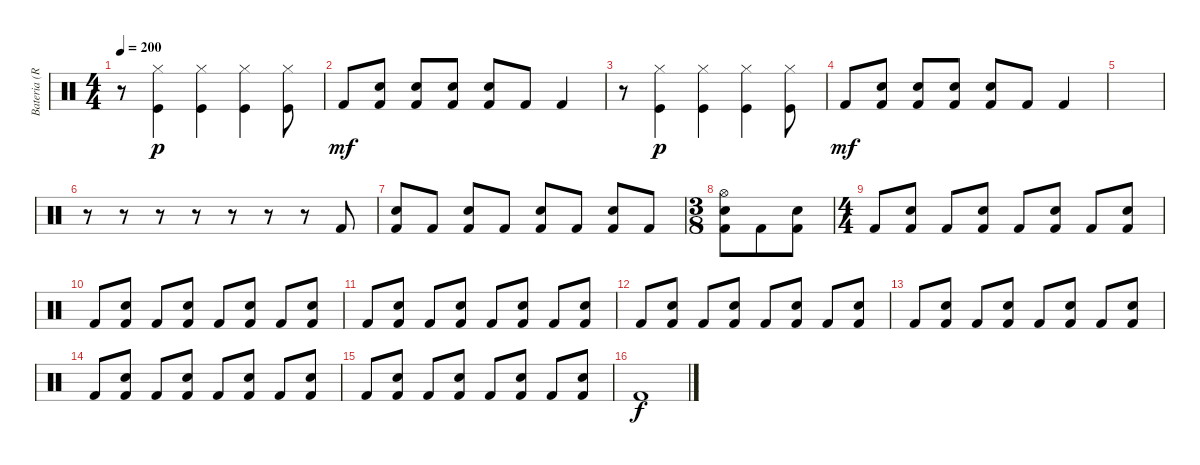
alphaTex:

\track ("Bateria (Ray)" "Bateria (R") {instrument percussion}
\staff {score}
\articulation defaults
\ts (4 4)
\tempo 200
\clef neutral
\ks c
r.8{dy mf} ("Kick (hit)" "Hi-Hat (closed)").4{dy p} ("Kick (hit)" "Hi-Hat (closed)").4 ("Kick (hit)" "Hi-Hat (closed)").4 ("Kick (hit)" "Hi-Hat (closed)").8 |
"Kick (hit) 2".8{dy mf} ("Electric Snare (hit)" "Kick (hit) 2").8 ("Electric Snare (hit)" "Kick (hit) 2").8 ("Electric Snare (hit)" "Kick (hit) 2").8 ("Electric Snare (hit)" "Kick (hit) 2").8 "Kick (hit) 2".8 "Kick (hit) 2".4 |
r.8 ("Kick (hit)" "Hi-Hat (closed)").4{dy p} ("Kick (hit)" "Hi-Hat (closed)").4 ("Kick (hit)" "Hi-Hat (closed)").4 ("Kick (hit)" "Hi-Hat (closed)").8 |
"Kick (hit) 2".8{dy mf} ("Electric Snare (hit)" "Kick (hit) 2").8 ("Electric Snare (hit)" "Kick (hit) 2").8 ("Electric Snare (hit)" "Kick (hit) 2").8 ("Electric Snare (hit)" "Kick (hit) 2").8 "Kick (hit) 2".8 "Kick (hit) 2".4 |
|
r.8 r.8 r.8 r.8 r.8 r.8 r.8 "Kick (hit) 2".8 |
("Electric Snare (hit)" "Kick (hit) 2").8 "Kick (hit) 2".8 ("Electric Snare (hit)" "Kick (hit) 2").8 "Kick (hit) 2".8 ("Electric Snare (hit)" "Kick (hit) 2").8 "Kick (hit) 2".8 ("Electric Snare (hit)" "Kick (hit) 2").8 "Kick (hit) 2".8 |
\ts (3 8)
("Electric Snare (hit)" "Kick (hit) 2" "Hi-Hat (open)").8 "Kick (hit) 2".8 ("Electric Snare (hit)" "Kick (hit) 2").8 |
\ts (4 4)
"Kick (hit) 2".8 ("Electric Snare (hit)" "Kick (hit) 2").8 "Kick (hit) 2".8 ("Electric Snare (hit)" "Kick (hit) 2").8 "Kick (hit) 2".8 ("Electric Snare (hit)" "Kick (hit) 2").8 "Kick (hit) 2".8 ("Electric Snare (hit)" "Kick (hit) 2").8 |
"Kick (hit) 2".8 ("Electric Snare (hit)" "Kick (hit) 2").8 "Kick (hit) 2".8 ("Electric Snare (hit)" "Kick (hit) 2").8 "Kick (hit) 2".8 ("Electric Snare (hit)" "Kick (hit) 2").8 "Kick (hit) 2".8 ("Electric Snare (hit)" "Kick (hit) 2").8 |
"Kick (hit) 2".8 ("Electric Snare (hit)" "Kick (hit) 2").8 "Kick (hit) 2".8 ("Electric Snare (hit)" "Kick (hit) 2").8 "Kick (hit) 2".8 ("Electric Snare (hit)" "Kick (hit) 2").8 "Kick (hit) 2".8 ("Electric Snare (hit)" "Kick (hit) 2").8 |
"Kick (hit) 2".8 ("Electric Snare (hit)" "Kick (hit) 2").8 "Kick (hit) 2".8 ("Electric Snare (hit)" "Kick (hit) 2").8 "Kick (hit) 2".8 ("Electric Snare (hit)" "Kick (hit) 2").8 "Kick (hit) 2".8 ("Electric Snare (hit)" "Kick (hit) 2").8 |
"Kick (hit) 2".8 ("Electric Snare (hit)" "Kick (hit) 2").8 "Kick (hit) 2".8 ("Electric Snare (hit)" "Kick (hit) 2").8 "Kick (hit) 2".8 ("Electric Snare (hit)" "Kick (hit) 2").8 "Kick (hit) 2".8 ("Electric Snare (hit)" "Kick (hit) 2").8 |
"Kick (hit) 2".8 ("Electric Snare (hit)" "Kick (hit) 2").8 "Kick (hit) 2".8 ("Electric Snare (hit)" "Kick (hit) 2").8 "Kick (hit) 2".8 ("Electric Snare (hit)" "Kick (hit) 2").8 "Kick (hit) 2".8 ("Electric Snare (hit)" "Kick (hit) 2").8 |
"Kick (hit) 2".8 ("Electric Snare (hit)" "Kick (hit) 2").8 "Kick (hit) 2".8 ("Electric Snare (hit)" "Kick (hit) 2").8 "Kick (hit) 2".8 ("Electric Snare (hit)" "Kick (hit) 2").8 "Kick (hit) 2".8 ("Electric Snare (hit)" "Kick (hit) 2").8 |
"Kick (hit) 2".1{dy f}
